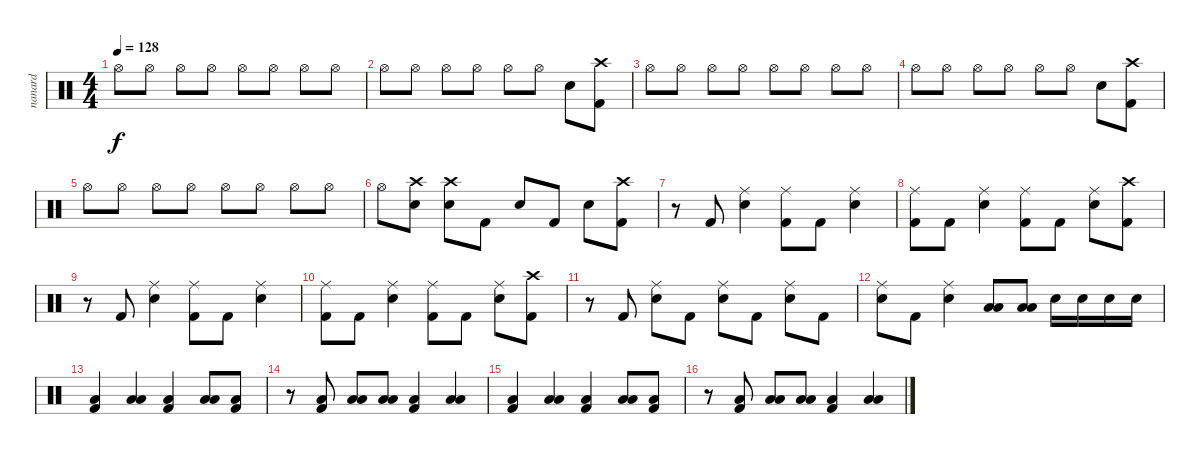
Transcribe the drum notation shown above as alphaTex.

\track ("nanard" "nanard") {instrument percussion}
\staff {score}
\articulation defaults
\ts (4 4)
\tempo 128
\clef neutral
\ks c "Hi-Hat (open)".8{dy f} "Hi-Hat (open)".8 "Hi-Hat (open)".8 "Hi-Hat (open)".8 "Hi-Hat (open)".8 "Hi-Hat (open)".8 "Hi-Hat (open)".8 "Hi-Hat (open)".8
|
"Hi-Hat (open)".8 "Hi-Hat (open)".8 "Hi-Hat (open)".8 "Hi-Hat (open)".8 "Hi-Hat (open)".8 "Hi-Hat (open)".8 "Electric Snare (hit)".8 ("Crash high (hit)" "Kick (hit) 2").8 |
"Hi-Hat (open)".8 "Hi-Hat (open)".8 "Hi-Hat (open)".8 "Hi-Hat (open)".8 "Hi-Hat (open)".8 "Hi-Hat (open)".8 "Hi-Hat (open)".8 "Hi-Hat (open)".8 |
"Hi-Hat (open)".8 "Hi-Hat (open)".8 "Hi-Hat (open)".8 "Hi-Hat (open)".8 "Hi-Hat (open)".8 "Hi-Hat (open)".8 "Electric Snare (hit)".8 ("Crash high (hit)" "Kick (hit) 2").8 |
"Hi-Hat (open)".8 "Hi-Hat (open)".8 "Hi-Hat (open)".8 "Hi-Hat (open)".8 "Hi-Hat (open)".8 "Hi-Hat (open)".8 "Hi-Hat (open)".8 "Hi-Hat (open)".8 |
"Hi-Hat (open)".8 ("Crash high (hit)" "Electric Snare (hit)").8 ("Crash high (hit)" "Electric Snare (hit)").8 "Kick (hit) 2".8 "Electric Snare (hit)".8 "Kick (hit) 2".8 "Electric Snare (hit)".8 ("Crash high (hit)" "Kick (hit) 2").8 |
r.8 "Kick (hit) 2".8 ("Ride (middle)" "Electric Snare (hit)").4 ("Ride (middle)" "Kick (hit) 2").8 "Kick (hit) 2".8 ("Ride (middle)" "Electric Snare (hit)").4 |
("Ride (middle)" "Kick (hit) 2").8 "Kick (hit) 2".8 ("Ride (middle)" "Electric Snare (hit)").4 ("Ride (middle)" "Kick (hit) 2").8 "Kick (hit) 2".8 ("Ride (middle)" "Electric Snare (hit)").8 ("Crash high (hit)" "Kick (hit) 2").8 |
r.8 "Kick (hit) 2".8 ("Ride (middle)" "Electric Snare (hit)").4 ("Ride (middle)" "Kick (hit) 2").8 "Kick (hit) 2".8 ("Ride (middle)" "Electric Snare (hit)").4 |
("Ride (middle)" "Kick (hit) 2").8 "Kick (hit) 2".8 ("Ride (middle)" "Electric Snare (hit)").4 ("Ride (middle)" "Kick (hit) 2").8 "Kick (hit) 2".8 ("Ride (middle)" "Electric Snare (hit)").8 ("Crash high (hit)" "Kick (hit) 2").8 |
r.8 "Kick (hit) 2".8 ("Ride (middle)" "Electric Snare (hit)").8 "Kick (hit) 2".8 ("Ride (middle)" "Electric Snare (hit)").8 "Kick (hit) 2".8 ("Ride (middle)" "Electric Snare (hit)").8 "Kick (hit) 2".8 |
("Ride (middle)" "Electric Snare (hit)").8 "Kick (hit) 2".8 ("Ride (middle)" "Electric Snare (hit)").4 ("Low Tom (hit)" "Low Floor Tom (hit)").8 ("Low Tom (hit)" "Low Floor Tom (hit)").8 "Electric Snare (hit)".16 "Electric Snare (hit)".16 "Electric Snare (hit)".16 "Electric Snare (hit)".16 |
("Low Floor Tom (hit)" "Kick (hit) 2").4 ("Low Tom (hit)" "Low Floor Tom (hit)").4 ("Low Floor Tom (hit)" "Kick (hit) 2").4 ("Low Tom (hit)" "Low Floor Tom (hit)").8 ("Low Floor Tom (hit)" "Kick (hit) 2").8 |
r.8 ("Low Floor Tom (hit)" "Kick (hit) 2").8 ("Low Tom (hit)" "Low Floor Tom (hit)").8 ("Low Tom (hit)" "Low Floor Tom (hit)").8 ("Low Floor Tom (hit)" "Kick (hit) 2").4 ("Low Tom (hit)" "Low Floor Tom (hit)").4 |
("Low Floor Tom (hit)" "Kick (hit) 2").4 ("Low Tom (hit)" "Low Floor Tom (hit)").4 ("Low Floor Tom (hit)" "Kick (hit) 2").4 ("Low Tom (hit)" "Low Floor Tom (hit)").8 ("Low Floor Tom (hit)" "Kick (hit) 2").8 |
r.8 ("Low Floor Tom (hit)" "Kick (hit) 2").8 ("Low Tom (hit)" "Low Floor Tom (hit)").8 ("Low Tom (hit)" "Low Floor Tom (hit)").8 ("Low Floor Tom (hit)" "Kick (hit) 2").4 ("Low Tom (hit)" "Low Floor Tom (hit)").4
